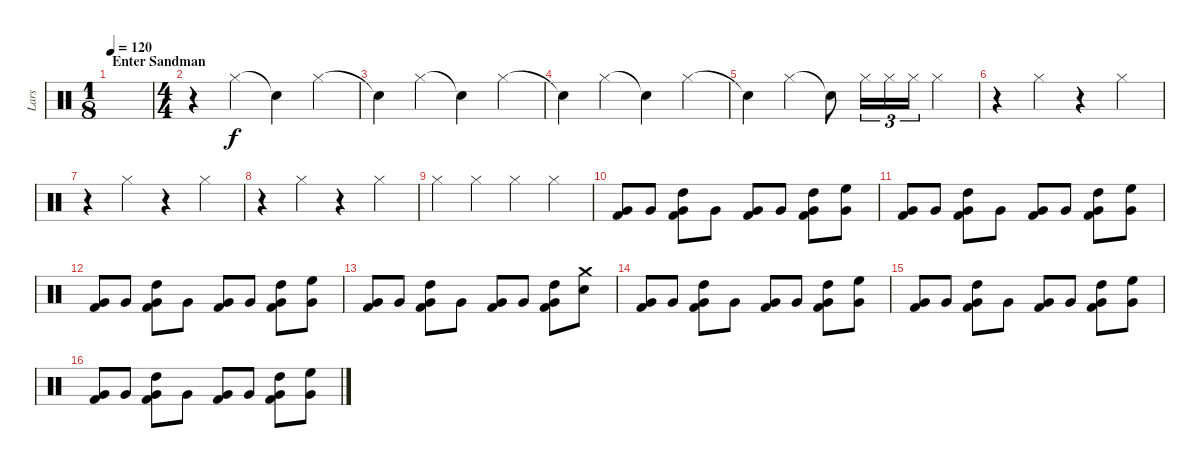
\track ("Lars" "Lars") {instrument percussion}
\staff {score}
\articulation defaults
\ts (1 8)
\section ("" "Enter Sandman")
\tempo 120
\clef neutral
\ks c
|
\ts (4 4)
r.4 "Hi-Hat (closed)".4 "Snare (hit)"{t}.4 "Hi-Hat (closed)".4 |
"Snare (hit)"{t}.4 "Hi-Hat (closed)".4 "Snare (hit)"{t}.4 "Hi-Hat (closed)".4 |
"Snare (hit)"{t}.4 "Hi-Hat (closed)".4 "Snare (hit)"{t}.4 "Hi-Hat (closed)".4 |
"Snare (hit)"{t}.4 "Hi-Hat (closed)".4 "Snare (hit)"{t}.8 "Hi-Hat (closed)".16{tu (3 2)} "Hi-Hat (closed)".16{tu (3 2)} "Hi-Hat (closed)".16{tu (3 2)} "Hi-Hat (closed)".4 |
r.4 "Hi-Hat (closed)".4 r.4 "Hi-Hat (closed)".4 |
r.4 "Hi-Hat (closed)".4 r.4 "Hi-Hat (closed)".4 |
r.4 "Hi-Hat (closed)".4 r.4 "Hi-Hat (closed)".4 |
"Hi-Hat (closed)".4 "Hi-Hat (closed)".4 "Hi-Hat (closed)".4 "Hi-Hat (closed)".4 |
("Very Low Tom (hit)" "Kick (hit) 2").8 "Very Low Tom (hit)".8 ("High Tom (hit)" "Very Low Tom (hit)" "Kick (hit) 2").8 "Very Low Tom (hit)".8 ("Very Low Tom (hit)" "Kick (hit) 2").8 "Very Low Tom (hit)".8 ("High Tom (hit)" "Very Low Tom (hit)" "Kick (hit) 2").8 ("High Floor Tom (hit)" "Very Low Tom (hit)").8 |
("Very Low Tom (hit)" "Kick (hit) 2").8 "Very Low Tom (hit)".8 ("High Tom (hit)" "Very Low Tom (hit)" "Kick (hit) 2").8 "Very Low Tom (hit)".8 ("Very Low Tom (hit)" "Kick (hit) 2").8 "Very Low Tom (hit)".8 ("High Tom (hit)" "Very Low Tom (hit)" "Kick (hit) 2").8 ("High Floor Tom (hit)" "Very Low Tom (hit)").8 |
("Very Low Tom (hit)" "Kick (hit) 2").8 "Very Low Tom (hit)".8 ("High Tom (hit)" "Very Low Tom (hit)" "Kick (hit) 2").8 "Very Low Tom (hit)".8 ("Very Low Tom (hit)" "Kick (hit) 2").8 "Very Low Tom (hit)".8 ("High Tom (hit)" "Very Low Tom (hit)" "Kick (hit) 2").8 ("High Floor Tom (hit)" "Very Low Tom (hit)").8 |
("Very Low Tom (hit)" "Kick (hit) 2").8 "Very Low Tom (hit)".8 ("High Tom (hit)" "Very Low Tom (hit)" "Kick (hit) 2").8 "Very Low Tom (hit)".8 ("Very Low Tom (hit)" "Kick (hit) 2").8 "Very Low Tom (hit)".8 ("High Tom (hit)" "Very Low Tom (hit)" "Kick (hit) 2").8 ("Snare (hit) 2" "Crash medium (hit)").8 |
("Very Low Tom (hit)" "Kick (hit) 2").8 "Very Low Tom (hit)".8 ("High Tom (hit)" "Very Low Tom (hit)" "Kick (hit) 2").8 "Very Low Tom (hit)".8 ("Very Low Tom (hit)" "Kick (hit) 2").8 "Very Low Tom (hit)".8 ("High Tom (hit)" "Very Low Tom (hit)" "Kick (hit) 2").8 ("High Floor Tom (hit)" "Very Low Tom (hit)").8 |
("Very Low Tom (hit)" "Kick (hit) 2").8 "Very Low Tom (hit)".8 ("High Tom (hit)" "Very Low Tom (hit)" "Kick (hit) 2").8 "Very Low Tom (hit)".8 ("Very Low Tom (hit)" "Kick (hit) 2").8 "Very Low Tom (hit)".8 ("High Tom (hit)" "Very Low Tom (hit)" "Kick (hit) 2").8 ("High Floor Tom (hit)" "Very Low Tom (hit)").8 |
("Very Low Tom (hit)" "Kick (hit) 2").8 "Very Low Tom (hit)".8 ("High Tom (hit)" "Very Low Tom (hit)" "Kick (hit) 2").8 "Very Low Tom (hit)".8 ("Very Low Tom (hit)" "Kick (hit) 2").8 "Very Low Tom (hit)".8 ("High Tom (hit)" "Very Low Tom (hit)" "Kick (hit) 2").8 ("High Floor Tom (hit)" "Very Low Tom (hit)").8
